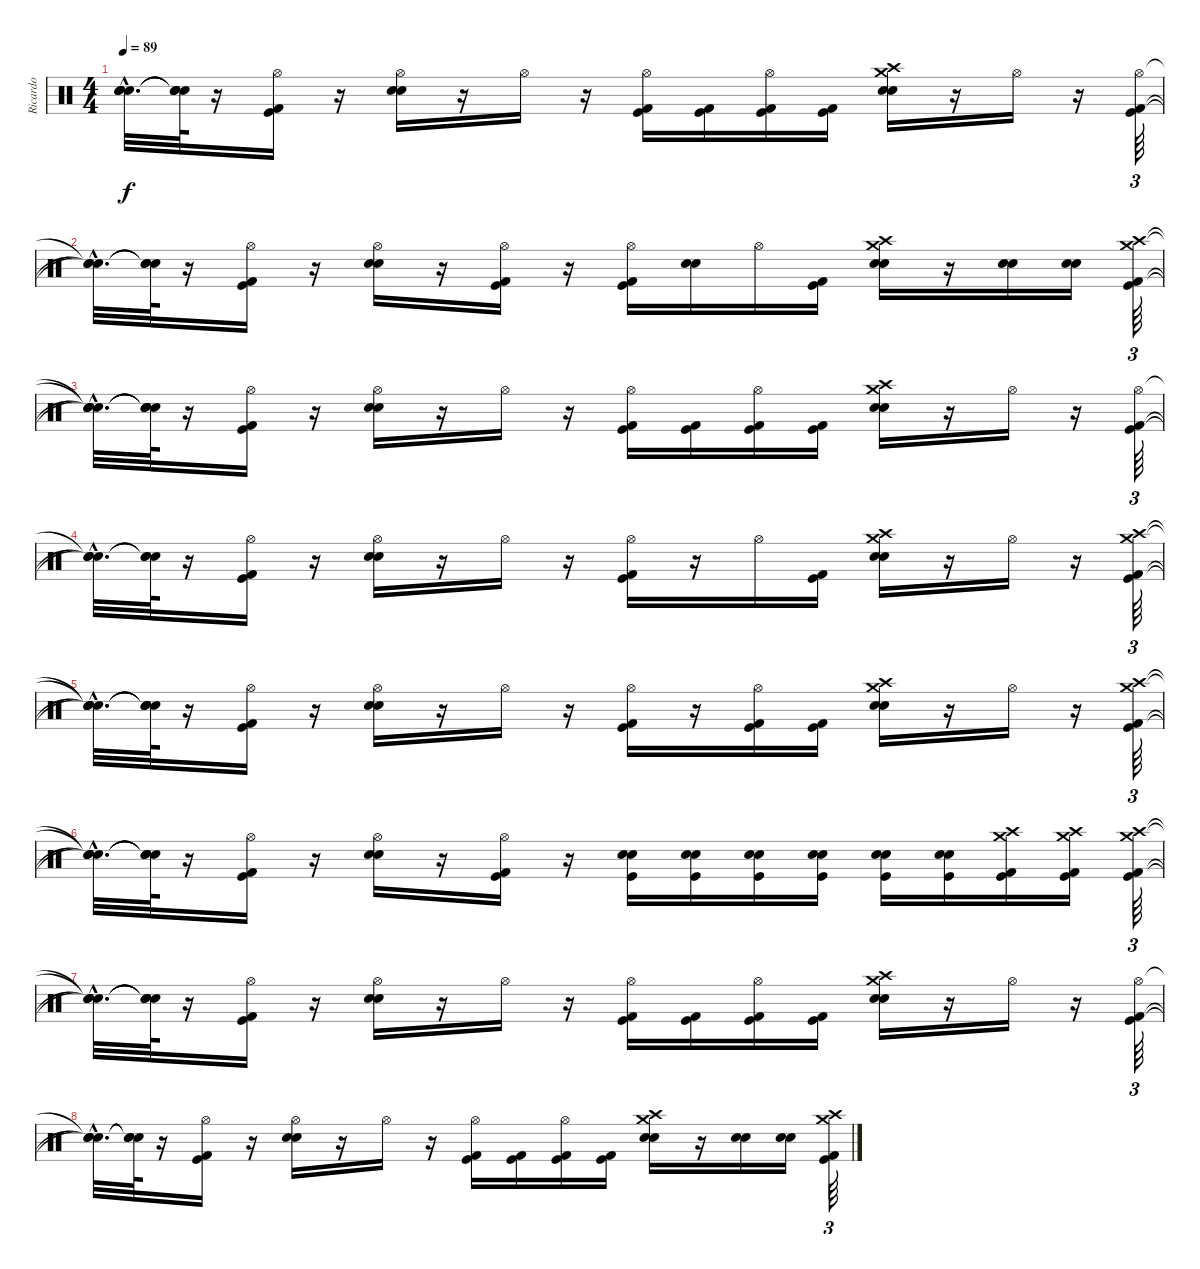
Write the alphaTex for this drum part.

\track ("Ricardo" "Ricardo") {instrument percussion}
\staff {score}
\articulation defaults
\ts (4 4)
\tempo 89
\clef neutral
\ks c
("Snare (hit)"{hac t} "Snare (hit)"{hac t} "Snare (hit)"{hac t} "Snare (hit)"{hac t}).32{d dy f} ("Snare (hit)"{t} "Snare (hit)"{t} "Snare (hit)"{t} "Snare (hit)"{t}).64 r.16 ("Hi-Hat (open)" "Kick (hit) 2" "Kick (hit)").16 r.16 ("Hi-Hat (open)" "Electric Snare (hit)" "Snare (hit) 2").16 r.16 "Hi-Hat (open)".16 r.16 ("Hi-Hat (open)" "Kick (hit) 2" "Kick (hit)").16 ("Kick (hit) 2" "Kick (hit)").16 ("Hi-Hat (open)" "Kick (hit) 2" "Kick (hit)").16 ("Kick (hit) 2" "Kick (hit)").16 ("Crash medium (hit)" "Crash high (hit)" "Electric Snare (hit)" "Snare (hit) 2").16 r.16 "Hi-Hat (open)".16 r.16 ("Hi-Hat (open)" "Kick (hit) 2" "Kick (hit)").64{tu (3 2)} |
("Snare (hit)"{hac t} "Snare (hit)"{hac t} "Snare (hit)"{hac t}).32{d} ("Snare (hit)"{t} "Snare (hit)"{t} "Snare (hit)"{t}).64 r.16 ("Hi-Hat (open)" "Kick (hit) 2" "Kick (hit)").16 r.16 ("Hi-Hat (open)" "Electric Snare (hit)" "Snare (hit) 2").16 r.16 ("Kick (hit) 2" "Kick (hit)" "Hi-Hat (open)").16 r.16 ("Hi-Hat (open)" "Kick (hit) 2" "Kick (hit)").16 ("Electric Snare (hit)" "Snare (hit) 2").16 "Hi-Hat (open)".16 ("Kick (hit) 2" "Kick (hit)").16 ("Crash medium (hit)" "Crash high (hit)" "Electric Snare (hit)" "Snare (hit) 2").16 r.16 ("Snare (hit) 2" "Electric Snare (hit)").16 ("Electric Snare (hit)" "Snare (hit) 2").16 ("Crash medium (hit)" "Crash high (hit)" "Kick (hit) 2" "Kick (hit)").64{tu (3 2)} |
("Snare (hit)"{hac t} "Snare (hit)"{hac t} "Snare (hit)"{hac t} "Snare (hit)"{hac t}).32{d} ("Snare (hit)"{t} "Snare (hit)"{t} "Snare (hit)"{t} "Snare (hit)"{t}).64 r.16 ("Hi-Hat (open)" "Kick (hit) 2" "Kick (hit)").16 r.16 ("Hi-Hat (open)" "Electric Snare (hit)" "Snare (hit) 2").16 r.16 "Hi-Hat (open)".16 r.16 ("Hi-Hat (open)" "Kick (hit) 2" "Kick (hit)").16 ("Kick (hit) 2" "Kick (hit)").16 ("Hi-Hat (open)" "Kick (hit) 2" "Kick (hit)").16 ("Kick (hit) 2" "Kick (hit)").16 ("Crash medium (hit)" "Crash high (hit)" "Electric Snare (hit)" "Snare (hit) 2").16 r.16 "Hi-Hat (open)".16 r.16 ("Hi-Hat (open)" "Kick (hit) 2" "Kick (hit)").64{tu (3 2)} |
("Snare (hit)"{hac t} "Snare (hit)"{hac t} "Snare (hit)"{hac t}).32{d} ("Snare (hit)"{t} "Snare (hit)"{t} "Snare (hit)"{t}).64 r.16 ("Hi-Hat (open)" "Kick (hit) 2" "Kick (hit)").16 r.16 ("Hi-Hat (open)" "Electric Snare (hit)" "Snare (hit) 2").16 r.16 "Hi-Hat (open)".16 r.16 ("Hi-Hat (open)" "Kick (hit) 2" "Kick (hit)").16 r.16 "Hi-Hat (open)".16 ("Kick (hit) 2" "Kick (hit)").16 ("Crash medium (hit)" "Crash high (hit)" "Electric Snare (hit)" "Snare (hit) 2").16 r.16 "Hi-Hat (open)".16 r.16 ("Crash medium (hit)" "Crash high (hit)" "Kick (hit) 2" "Kick (hit)").64{tu (3 2)} |
("Snare (hit)"{hac t} "Snare (hit)"{hac t} "Snare (hit)"{hac t} "Snare (hit)"{hac t}).32{d} ("Snare (hit)"{t} "Snare (hit)"{t} "Snare (hit)"{t} "Snare (hit)"{t}).64 r.16 ("Hi-Hat (open)" "Kick (hit) 2" "Kick (hit)").16 r.16 ("Hi-Hat (open)" "Electric Snare (hit)" "Snare (hit) 2").16 r.16 "Hi-Hat (open)".16 r.16 ("Hi-Hat (open)" "Kick (hit) 2" "Kick (hit)").16 r.16 ("Hi-Hat (open)" "Kick (hit) 2" "Kick (hit)").16 ("Kick (hit) 2" "Kick (hit)").16 ("Crash medium (hit)" "Crash high (hit)" "Electric Snare (hit)" "Snare (hit) 2").16 r.16 "Hi-Hat (open)".16 r.16 ("Crash medium (hit)" "Crash high (hit)" "Kick (hit) 2" "Kick (hit)").64{tu (3 2)} |
("Snare (hit)"{hac t} "Snare (hit)"{hac t} "Snare (hit)"{hac t} "Snare (hit)"{hac t}).32{d} ("Snare (hit)"{t} "Snare (hit)"{t} "Snare (hit)"{t} "Snare (hit)"{t}).64 r.16 ("Hi-Hat (open)" "Kick (hit) 2" "Kick (hit)").16 r.16 ("Hi-Hat (open)" "Electric Snare (hit)" "Snare (hit) 2").16 r.16 ("Kick (hit) 2" "Kick (hit)" "Hi-Hat (open)").16 r.16 ("Electric Snare (hit)" "Snare (hit) 2" "Kick (hit)").16 ("Electric Snare (hit)" "Snare (hit) 2" "Kick (hit)").16 ("Electric Snare (hit)" "Snare (hit) 2" "Kick (hit)").16 ("Electric Snare (hit)" "Snare (hit) 2" "Kick (hit)").16 ("Kick (hit)" "Electric Snare (hit)" "Snare (hit) 2").16 ("Kick (hit)" "Electric Snare (hit)" "Snare (hit) 2").16 ("Crash high (hit)" "Crash medium (hit)" "Kick (hit) 2" "Kick (hit)").16 ("Kick (hit) 2" "Kick (hit)" "Crash high (hit)" "Crash medium (hit)").16 ("Crash medium (hit)" "Crash high (hit)" "Kick (hit) 2" "Kick (hit)").64{tu (3 2)} |
("Snare (hit)"{hac t} "Snare (hit)"{hac t} "Snare (hit)"{hac t} "Snare (hit)"{hac t}).32{d} ("Snare (hit)"{t} "Snare (hit)"{t} "Snare (hit)"{t} "Snare (hit)"{t}).64 r.16 ("Hi-Hat (open)" "Kick (hit) 2" "Kick (hit)").16 r.16 ("Hi-Hat (open)" "Electric Snare (hit)" "Snare (hit) 2").16 r.16 "Hi-Hat (open)".16 r.16 ("Hi-Hat (open)" "Kick (hit) 2" "Kick (hit)").16 ("Kick (hit) 2" "Kick (hit)").16 ("Hi-Hat (open)" "Kick (hit) 2" "Kick (hit)").16 ("Kick (hit) 2" "Kick (hit)").16 ("Crash medium (hit)" "Crash high (hit)" "Electric Snare (hit)" "Snare (hit) 2").16 r.16 "Hi-Hat (open)".16 r.16 ("Hi-Hat (open)" "Kick (hit) 2" "Kick (hit)").64{tu (3 2)} |
("Snare (hit)"{hac t} "Snare (hit)"{hac t} "Snare (hit)"{hac t}).32{d} ("Snare (hit)"{t} "Snare (hit)"{t} "Snare (hit)"{t}).64 r.16 ("Hi-Hat (open)" "Kick (hit) 2" "Kick (hit)").16 r.16 ("Hi-Hat (open)" "Electric Snare (hit)" "Snare (hit) 2").16 r.16 "Hi-Hat (open)".16 r.16 ("Hi-Hat (open)" "Kick (hit) 2" "Kick (hit)").16 ("Kick (hit) 2" "Kick (hit)").16 ("Hi-Hat (open)" "Kick (hit) 2" "Kick (hit)").16 ("Kick (hit) 2" "Kick (hit)").16 ("Crash medium (hit)" "Crash high (hit)" "Electric Snare (hit)" "Snare (hit) 2").16 r.16 ("Electric Snare (hit)" "Snare (hit) 2").16 ("Electric Snare (hit)" "Snare (hit) 2").16 ("Crash medium (hit)" "Crash high (hit)" "Kick (hit) 2" "Kick (hit)").64{tu (3 2)}
